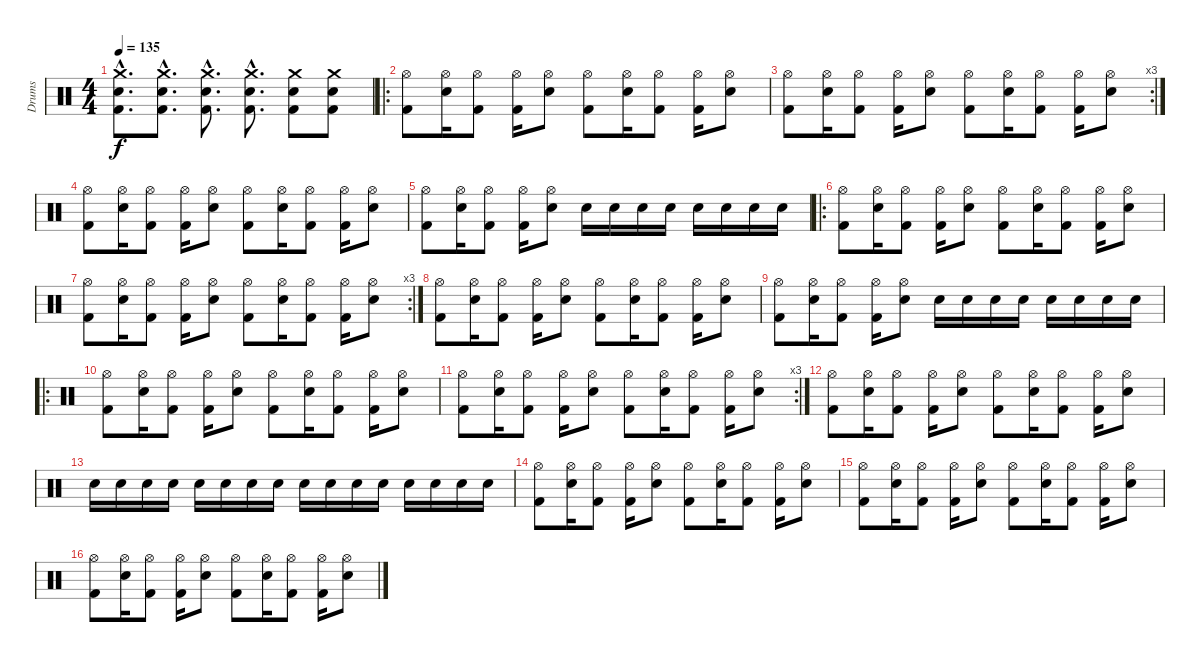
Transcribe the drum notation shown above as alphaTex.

\track ("Drums" "Drums") {instrument percussion}
\staff {score}
\articulation defaults
\ts (4 4)
\tempo 135
\clef neutral
\ks c
("Crash medium (hit)"{hac} "Snare (hit) 2"{hac} "Kick (hit) 2"{hac}).8{d dy f} ("Crash medium (hit)"{hac} "Snare (hit) 2"{hac} "Kick (hit) 2"{hac}).8{d} ("Crash medium (hit)"{hac} "Snare (hit) 2"{hac} "Kick (hit) 2"{hac}).8{d} ("Crash medium (hit)"{hac} "Snare (hit) 2"{hac} "Kick (hit) 2"{hac}).8{d} ("Crash medium (hit)" "Snare (hit) 2" "Kick (hit) 2").8 ("Crash medium (hit)" "Snare (hit) 2" "Kick (hit) 2").8 |
\ro
("Hi-Hat (open)" "Kick (hit) 2").8 ("Hi-Hat (open)" "Snare (hit) 2").16 ("Hi-Hat (open)" "Kick (hit) 2").8 ("Hi-Hat (open)" "Kick (hit) 2").16 ("Hi-Hat (open)" "Snare (hit) 2").8 ("Hi-Hat (open)" "Kick (hit) 2").8 ("Hi-Hat (open)" "Snare (hit) 2").16 ("Hi-Hat (open)" "Kick (hit) 2").8 ("Hi-Hat (open)" "Kick (hit) 2").16 ("Hi-Hat (open)" "Snare (hit) 2").8 |
\rc 3
("Hi-Hat (open)" "Kick (hit) 2").8 ("Hi-Hat (open)" "Snare (hit) 2").16 ("Hi-Hat (open)" "Kick (hit) 2").8 ("Hi-Hat (open)" "Kick (hit) 2").16 ("Hi-Hat (open)" "Snare (hit) 2").8 ("Hi-Hat (open)" "Kick (hit) 2").8 ("Hi-Hat (open)" "Snare (hit) 2").16 ("Hi-Hat (open)" "Kick (hit) 2").8 ("Hi-Hat (open)" "Kick (hit) 2").16 ("Hi-Hat (open)" "Snare (hit) 2").8 |
("Hi-Hat (open)" "Kick (hit) 2").8 ("Hi-Hat (open)" "Snare (hit) 2").16 ("Hi-Hat (open)" "Kick (hit) 2").8 ("Hi-Hat (open)" "Kick (hit) 2").16 ("Hi-Hat (open)" "Snare (hit) 2").8 ("Hi-Hat (open)" "Kick (hit) 2").8 ("Hi-Hat (open)" "Snare (hit) 2").16 ("Hi-Hat (open)" "Kick (hit) 2").8 ("Hi-Hat (open)" "Kick (hit) 2").16 ("Hi-Hat (open)" "Snare (hit) 2").8 |
("Hi-Hat (open)" "Kick (hit) 2").8 ("Hi-Hat (open)" "Snare (hit) 2").16 ("Hi-Hat (open)" "Kick (hit) 2").8 ("Hi-Hat (open)" "Kick (hit) 2").16 ("Hi-Hat (open)" "Snare (hit) 2").8 "Snare (hit) 2".16 "Snare (hit) 2".16 "Snare (hit) 2".16 "Snare (hit) 2".16 "Snare (hit) 2".16 "Snare (hit) 2".16 "Snare (hit) 2".16 "Snare (hit) 2".16 |
\ro
("Hi-Hat (open)" "Kick (hit) 2").8 ("Hi-Hat (open)" "Snare (hit) 2").16 ("Hi-Hat (open)" "Kick (hit) 2").8 ("Hi-Hat (open)" "Kick (hit) 2").16 ("Hi-Hat (open)" "Snare (hit) 2").8 ("Hi-Hat (open)" "Kick (hit) 2").8 ("Hi-Hat (open)" "Snare (hit) 2").16 ("Hi-Hat (open)" "Kick (hit) 2").8 ("Hi-Hat (open)" "Kick (hit) 2").16 ("Hi-Hat (open)" "Snare (hit) 2").8 |
\rc 3
("Hi-Hat (open)" "Kick (hit) 2").8 ("Hi-Hat (open)" "Snare (hit) 2").16 ("Hi-Hat (open)" "Kick (hit) 2").8 ("Hi-Hat (open)" "Kick (hit) 2").16 ("Hi-Hat (open)" "Snare (hit) 2").8 ("Hi-Hat (open)" "Kick (hit) 2").8 ("Hi-Hat (open)" "Snare (hit) 2").16 ("Hi-Hat (open)" "Kick (hit) 2").8 ("Hi-Hat (open)" "Kick (hit) 2").16 ("Hi-Hat (open)" "Snare (hit) 2").8 |
("Hi-Hat (open)" "Kick (hit) 2").8 ("Hi-Hat (open)" "Snare (hit) 2").16 ("Hi-Hat (open)" "Kick (hit) 2").8 ("Hi-Hat (open)" "Kick (hit) 2").16 ("Hi-Hat (open)" "Snare (hit) 2").8 ("Hi-Hat (open)" "Kick (hit) 2").8 ("Hi-Hat (open)" "Snare (hit) 2").16 ("Hi-Hat (open)" "Kick (hit) 2").8 ("Hi-Hat (open)" "Kick (hit) 2").16 ("Hi-Hat (open)" "Snare (hit) 2").8 |
("Hi-Hat (open)" "Kick (hit) 2").8 ("Hi-Hat (open)" "Snare (hit) 2").16 ("Hi-Hat (open)" "Kick (hit) 2").8 ("Hi-Hat (open)" "Kick (hit) 2").16 ("Hi-Hat (open)" "Snare (hit) 2").8 "Snare (hit) 2".16 "Snare (hit) 2".16 "Snare (hit) 2".16 "Snare (hit) 2".16 "Snare (hit) 2".16 "Snare (hit) 2".16 "Snare (hit) 2".16 "Snare (hit) 2".16 |
\ro
("Hi-Hat (open)" "Kick (hit) 2").8 ("Hi-Hat (open)" "Snare (hit) 2").16 ("Hi-Hat (open)" "Kick (hit) 2").8 ("Hi-Hat (open)" "Kick (hit) 2").16 ("Hi-Hat (open)" "Snare (hit) 2").8 ("Hi-Hat (open)" "Kick (hit) 2").8 ("Hi-Hat (open)" "Snare (hit) 2").16 ("Hi-Hat (open)" "Kick (hit) 2").8 ("Hi-Hat (open)" "Kick (hit) 2").16 ("Hi-Hat (open)" "Snare (hit) 2").8 |
\rc 3
("Hi-Hat (open)" "Kick (hit) 2").8 ("Hi-Hat (open)" "Snare (hit) 2").16 ("Hi-Hat (open)" "Kick (hit) 2").8 ("Hi-Hat (open)" "Kick (hit) 2").16 ("Hi-Hat (open)" "Snare (hit) 2").8 ("Hi-Hat (open)" "Kick (hit) 2").8 ("Hi-Hat (open)" "Snare (hit) 2").16 ("Hi-Hat (open)" "Kick (hit) 2").8 ("Hi-Hat (open)" "Kick (hit) 2").16 ("Hi-Hat (open)" "Snare (hit) 2").8 |
("Hi-Hat (open)" "Kick (hit) 2").8 ("Hi-Hat (open)" "Snare (hit) 2").16 ("Hi-Hat (open)" "Kick (hit) 2").8 ("Hi-Hat (open)" "Kick (hit) 2").16 ("Hi-Hat (open)" "Snare (hit) 2").8 ("Hi-Hat (open)" "Kick (hit) 2").8 ("Hi-Hat (open)" "Snare (hit) 2").16 ("Hi-Hat (open)" "Kick (hit) 2").8 ("Hi-Hat (open)" "Kick (hit) 2").16 ("Hi-Hat (open)" "Snare (hit) 2").8 |
"Snare (hit) 2".16 "Snare (hit) 2".16 "Snare (hit) 2".16 "Snare (hit) 2".16 "Snare (hit) 2".16 "Snare (hit) 2".16 "Snare (hit) 2".16 "Snare (hit) 2".16 "Snare (hit) 2".16 "Snare (hit) 2".16 "Snare (hit) 2".16 "Snare (hit) 2".16 "Snare (hit) 2".16 "Snare (hit) 2".16 "Snare (hit) 2".16 "Snare (hit) 2".16 |
("Hi-Hat (open)" "Kick (hit) 2").8 ("Hi-Hat (open)" "Snare (hit) 2").16 ("Hi-Hat (open)" "Kick (hit) 2").8 ("Hi-Hat (open)" "Kick (hit) 2").16 ("Hi-Hat (open)" "Snare (hit) 2").8 ("Hi-Hat (open)" "Kick (hit) 2").8 ("Hi-Hat (open)" "Snare (hit) 2").16 ("Hi-Hat (open)" "Kick (hit) 2").8 ("Hi-Hat (open)" "Kick (hit) 2").16 ("Hi-Hat (open)" "Snare (hit) 2").8 |
("Hi-Hat (open)" "Kick (hit) 2").8 ("Hi-Hat (open)" "Snare (hit) 2").16 ("Hi-Hat (open)" "Kick (hit) 2").8 ("Hi-Hat (open)" "Kick (hit) 2").16 ("Hi-Hat (open)" "Snare (hit) 2").8 ("Hi-Hat (open)" "Kick (hit) 2").8 ("Hi-Hat (open)" "Snare (hit) 2").16 ("Hi-Hat (open)" "Kick (hit) 2").8 ("Hi-Hat (open)" "Kick (hit) 2").16 ("Hi-Hat (open)" "Snare (hit) 2").8 |
("Hi-Hat (open)" "Kick (hit) 2").8 ("Hi-Hat (open)" "Snare (hit) 2").16 ("Hi-Hat (open)" "Kick (hit) 2").8 ("Hi-Hat (open)" "Kick (hit) 2").16 ("Hi-Hat (open)" "Snare (hit) 2").8 ("Hi-Hat (open)" "Kick (hit) 2").8 ("Hi-Hat (open)" "Snare (hit) 2").16 ("Hi-Hat (open)" "Kick (hit) 2").8 ("Hi-Hat (open)" "Kick (hit) 2").16 ("Hi-Hat (open)" "Snare (hit) 2").8
